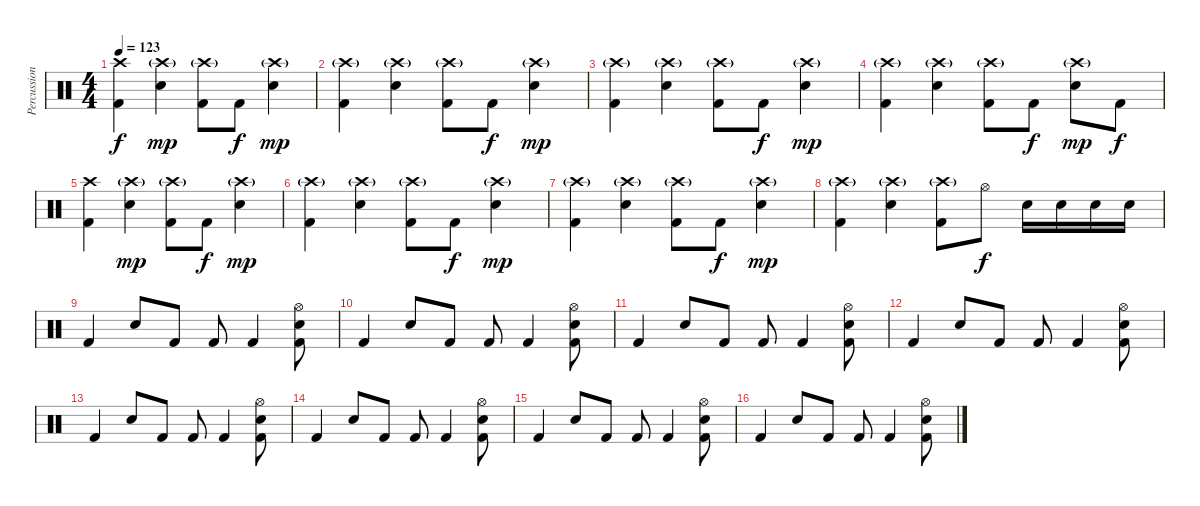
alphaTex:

\track ("Percussions" "Percussion") {instrument percussion}
\staff {score}
\articulation defaults
\ts (4 4)
\tempo 123
\clef neutral
\ks c
("Crash high (hit)" "Kick (hit) 2").4{dy f} ("Crash high (hit)"{g} "Snare (hit) 2").4{dy mp} ("Crash high (hit)"{g} "Kick (hit) 2").8 "Kick (hit) 2".8{dy f} ("Crash high (hit)"{g} "Snare (hit) 2").4{dy mp} |
("Crash high (hit)"{g} "Kick (hit) 2").4 ("Crash high (hit)"{g} "Snare (hit) 2").4 ("Crash high (hit)"{g} "Kick (hit) 2").8 "Kick (hit) 2".8{dy f} ("Crash high (hit)"{g} "Snare (hit) 2").4{dy mp} |
("Crash high (hit)"{g} "Kick (hit) 2").4 ("Crash high (hit)"{g} "Snare (hit) 2").4 ("Crash high (hit)"{g} "Kick (hit) 2").8 "Kick (hit) 2".8{dy f} ("Crash high (hit)"{g} "Snare (hit) 2").4{dy mp} |
("Crash high (hit)"{g} "Kick (hit) 2").4 ("Crash high (hit)"{g} "Snare (hit) 2").4 ("Crash high (hit)"{g} "Kick (hit) 2").8 "Kick (hit) 2".8{dy f} ("Crash high (hit)"{g} "Snare (hit) 2").8{dy mp} "Kick (hit) 2".8{dy f} |
("Crash high (hit)" "Kick (hit) 2").4 ("Crash high (hit)"{g} "Snare (hit) 2").4{dy mp} ("Crash high (hit)"{g} "Kick (hit) 2").8 "Kick (hit) 2".8{dy f} ("Crash high (hit)"{g} "Snare (hit) 2").4{dy mp} |
("Crash high (hit)"{g} "Kick (hit) 2").4 ("Crash high (hit)"{g} "Snare (hit) 2").4 ("Crash high (hit)"{g} "Kick (hit) 2").8 "Kick (hit) 2".8{dy f} ("Crash high (hit)"{g} "Snare (hit) 2").4{dy mp} |
("Crash high (hit)"{g} "Kick (hit) 2").4 ("Crash high (hit)"{g} "Snare (hit) 2").4 ("Crash high (hit)"{g} "Kick (hit) 2").8 "Kick (hit) 2".8{dy f} ("Crash high (hit)"{g} "Snare (hit) 2").4{dy mp} |
("Crash high (hit)"{g} "Kick (hit) 2").4 ("Crash high (hit)"{g} "Snare (hit) 2").4 ("Crash high (hit)"{g} "Kick (hit) 2").8 "Hi-Hat (open)".8{dy f} "Electric Snare (hit)".16 "Electric Snare (hit)".16 "Electric Snare (hit)".16 "Electric Snare (hit)".16 |
"Kick (hit) 2".4 "Snare (hit) 2".8 "Kick (hit) 2".8 "Kick (hit) 2".8 "Kick (hit) 2".4 ("Hi-Hat (open)" "Snare (hit) 2" "Kick (hit) 2").8 |
"Kick (hit) 2".4 "Snare (hit) 2".8 "Kick (hit) 2".8 "Kick (hit) 2".8 "Kick (hit) 2".4 ("Hi-Hat (open)" "Snare (hit) 2" "Kick (hit) 2").8 |
"Kick (hit) 2".4 "Snare (hit) 2".8 "Kick (hit) 2".8 "Kick (hit) 2".8 "Kick (hit) 2".4 ("Hi-Hat (open)" "Snare (hit) 2" "Kick (hit) 2").8 |
"Kick (hit) 2".4 "Snare (hit) 2".8 "Kick (hit) 2".8 "Kick (hit) 2".8 "Kick (hit) 2".4 ("Hi-Hat (open)" "Snare (hit) 2" "Kick (hit) 2").8 |
"Kick (hit) 2".4 "Snare (hit) 2".8 "Kick (hit) 2".8 "Kick (hit) 2".8 "Kick (hit) 2".4 ("Hi-Hat (open)" "Snare (hit) 2" "Kick (hit) 2").8 |
"Kick (hit) 2".4 "Snare (hit) 2".8 "Kick (hit) 2".8 "Kick (hit) 2".8 "Kick (hit) 2".4 ("Hi-Hat (open)" "Snare (hit) 2" "Kick (hit) 2").8 |
"Kick (hit) 2".4 "Snare (hit) 2".8 "Kick (hit) 2".8 "Kick (hit) 2".8 "Kick (hit) 2".4 ("Hi-Hat (open)" "Snare (hit) 2" "Kick (hit) 2").8 |
"Kick (hit) 2".4 "Snare (hit) 2".8 "Kick (hit) 2".8 "Kick (hit) 2".8 "Kick (hit) 2".4 ("Hi-Hat (open)" "Snare (hit) 2" "Kick (hit) 2").8
